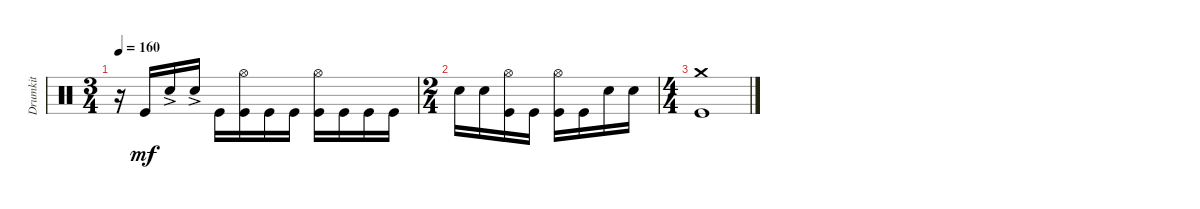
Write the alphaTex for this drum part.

\track ("Drumkit" "Drumkit") {instrument percussion}
\staff {score}
\articulation defaults
\ts (3 4)
\tempo 160
\clef neutral
\ks c
r.16{dy mf} "Kick (hit)".16 "Snare (hit) 2"{ac}.16 "Snare (hit) 2"{ac}.16 "Kick (hit)".16 ("Kick (hit)" "Hi-Hat (open)").16 "Kick (hit)".16 "Kick (hit)".16 ("Kick (hit)" "Hi-Hat (open)").16 "Kick (hit)".16 "Kick (hit)".16 "Kick (hit)".16 |
\ts (2 4)
"Snare (hit) 2".16 "Snare (hit) 2".16 ("Kick (hit)" "Hi-Hat (open)").16 "Kick (hit)".16 ("Kick (hit)" "Hi-Hat (open)").16 "Kick (hit)".16 "Snare (hit) 2".16 "Snare (hit) 2".16 |
\ts (4 4)
("Kick (hit)" "Crash medium (hit)").1
